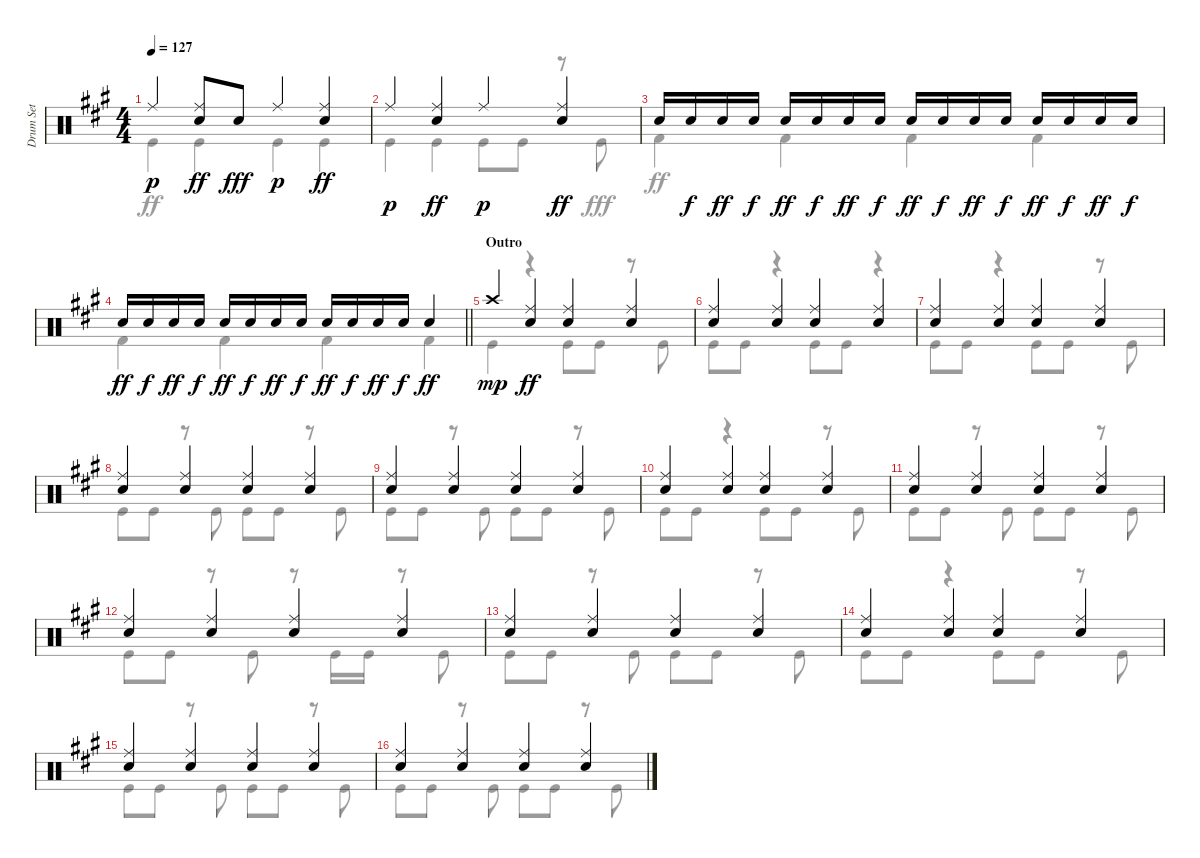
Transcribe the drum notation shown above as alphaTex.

\track ("Drum Set" "Drum Set") {instrument percussion}
\staff {score}
\articulation defaults
\voice
\ts (4 4)
\tempo 127
\clef neutral
\ks a "Ride (middle)".4{dy p}
("Ride (middle)" "Electric Snare (hit)").8{dy ff} "Electric Snare (hit)".8{dy fff} "Ride (middle)".4{dy p} ("Ride (middle)" "Electric Snare (hit)").4{dy ff} |
"Ride (middle)".4{dy p} ("Ride (middle)" "Electric Snare (hit)").4{dy ff} "Ride (middle)".4{dy p} ("Ride (middle)" "Electric Snare (hit)").4{dy ff} |
"Electric Snare (hit)".16 "Electric Snare (hit)".16{dy f} "Electric Snare (hit)".16{dy ff} "Electric Snare (hit)".16{dy f} "Electric Snare (hit)".16{dy ff} "Electric Snare (hit)".16{dy f} "Electric Snare (hit)".16{dy ff} "Electric Snare (hit)".16{dy f} "Electric Snare (hit)".16{dy ff} "Electric Snare (hit)".16{dy f} "Electric Snare (hit)".16{dy ff} "Electric Snare (hit)".16{dy f} "Electric Snare (hit)".16{dy ff} "Electric Snare (hit)".16{dy f} "Electric Snare (hit)".16{dy ff} "Electric Snare (hit)".16{dy f} |
\barLineRight lightlight "Electric Snare (hit)".16{dy ff} "Electric Snare (hit)".16{dy f} "Electric Snare (hit)".16{dy ff} "Electric Snare (hit)".16{dy f} "Electric Snare (hit)".16{dy ff} "Electric Snare (hit)".16{dy f} "Electric Snare (hit)".16{dy ff} "Electric Snare (hit)".16{dy f} "Electric Snare (hit)".16{dy ff} "Electric Snare (hit)".16{dy f} "Electric Snare (hit)".16{dy ff} "Electric Snare (hit)".16{dy f} "Electric Snare (hit)".4{dy ff}
|
\section ("" "Outro")
"Crash high (hit)".4{dy mp} ("Ride (middle)" "Electric Snare (hit)").4{dy ff} ("Ride (middle)" "Electric Snare (hit)").4 ("Ride (middle)" "Electric Snare (hit)").4 |
("Ride (middle)" "Electric Snare (hit)").4 ("Ride (middle)" "Electric Snare (hit)").4 ("Ride (middle)" "Electric Snare (hit)").4 ("Ride (middle)" "Electric Snare (hit)").4 |
("Ride (middle)" "Electric Snare (hit)").4 ("Ride (middle)" "Electric Snare (hit)").4 ("Ride (middle)" "Electric Snare (hit)").4 ("Ride (middle)" "Electric Snare (hit)").4 |
("Ride (middle)" "Electric Snare (hit)").4 ("Ride (middle)" "Electric Snare (hit)").4 ("Ride (middle)" "Electric Snare (hit)").4 ("Ride (middle)" "Electric Snare (hit)").4 |
("Ride (middle)" "Electric Snare (hit)").4 ("Ride (middle)" "Electric Snare (hit)").4 ("Ride (middle)" "Electric Snare (hit)").4 ("Ride (middle)" "Electric Snare (hit)").4 |
("Ride (middle)" "Electric Snare (hit)").4 ("Ride (middle)" "Electric Snare (hit)").4 ("Ride (middle)" "Electric Snare (hit)").4 ("Ride (middle)" "Electric Snare (hit)").4 |
("Ride (middle)" "Electric Snare (hit)").4 ("Ride (middle)" "Electric Snare (hit)").4 ("Ride (middle)" "Electric Snare (hit)").4 ("Ride (middle)" "Electric Snare (hit)").4 |
("Ride (middle)" "Electric Snare (hit)").4 ("Ride (middle)" "Electric Snare (hit)").4 ("Ride (middle)" "Electric Snare (hit)").4 ("Ride (middle)" "Electric Snare (hit)").4 |
("Ride (middle)" "Electric Snare (hit)").4 ("Ride (middle)" "Electric Snare (hit)").4 ("Ride (middle)" "Electric Snare (hit)").4 ("Ride (middle)" "Electric Snare (hit)").4 |
("Ride (middle)" "Electric Snare (hit)").4 ("Ride (middle)" "Electric Snare (hit)").4 ("Ride (middle)" "Electric Snare (hit)").4 ("Ride (middle)" "Electric Snare (hit)").4 |
("Ride (middle)" "Electric Snare (hit)").4 ("Ride (middle)" "Electric Snare (hit)").4 ("Ride (middle)" "Electric Snare (hit)").4 ("Ride (middle)" "Electric Snare (hit)").4 |
("Ride (middle)" "Electric Snare (hit)").4 ("Ride (middle)" "Electric Snare (hit)").4 ("Ride (middle)" "Electric Snare (hit)").4 ("Ride (middle)" "Electric Snare (hit)").4
\voice
\clef neutral
\ottava regular
\simile none
\ks a "Kick (hit)".4{dy ff} "Kick (hit)".4 "Kick (hit)".4 "Kick (hit)".4
|
"Kick (hit)".4 "Kick (hit)".4 "Kick (hit)".8 "Kick (hit)".8 r.8 "Kick (hit)".8{dy fff} |
"Kick (hit) 2".4{dy ff} "Kick (hit) 2".4 "Kick (hit) 2".4 "Kick (hit) 2".4 |
\barLineRight lightlight "Kick (hit) 2".4 "Kick (hit) 2".4 "Kick (hit) 2".4 "Kick (hit) 2".4
|
"Kick (hit)".4 r.4 "Kick (hit)".8 "Kick (hit)".8 r.8 "Kick (hit)".8 |
"Kick (hit)".8 "Kick (hit)".8 r.4 "Kick (hit)".8 "Kick (hit)".8 r.4 |
"Kick (hit)".8 "Kick (hit)".8 r.4 "Kick (hit)".8 "Kick (hit)".8 r.8 "Kick (hit)".8 |
"Kick (hit)".8 "Kick (hit)".8 r.8 "Kick (hit)".8 "Kick (hit)".8 "Kick (hit)".8 r.8 "Kick (hit)".8 |
"Kick (hit)".8 "Kick (hit)".8 r.8 "Kick (hit)".8 "Kick (hit)".8 "Kick (hit)".8 r.8 "Kick (hit)".8 |
"Kick (hit)".8 "Kick (hit)".8 r.4 "Kick (hit)".8 "Kick (hit)".8 r.8 "Kick (hit)".8 |
"Kick (hit)".8 "Kick (hit)".8 r.8 "Kick (hit)".8 "Kick (hit)".8 "Kick (hit)".8 r.8 "Kick (hit)".8 |
"Kick (hit)".8 "Kick (hit)".8 r.8 "Kick (hit)".8 r.8 "Kick (hit)".16 "Kick (hit)".16 r.8 "Kick (hit)".8 |
"Kick (hit)".8 "Kick (hit)".8 r.8 "Kick (hit)".8 "Kick (hit)".8 "Kick (hit)".8 r.8 "Kick (hit)".8 |
"Kick (hit)".8 "Kick (hit)".8 r.4 "Kick (hit)".8 "Kick (hit)".8 r.8 "Kick (hit)".8 |
"Kick (hit)".8 "Kick (hit)".8 r.8 "Kick (hit)".8 "Kick (hit)".8 "Kick (hit)".8 r.8 "Kick (hit)".8 |
"Kick (hit)".8 "Kick (hit)".8 r.8 "Kick (hit)".8 "Kick (hit)".8 "Kick (hit)".8 r.8 "Kick (hit)".8
